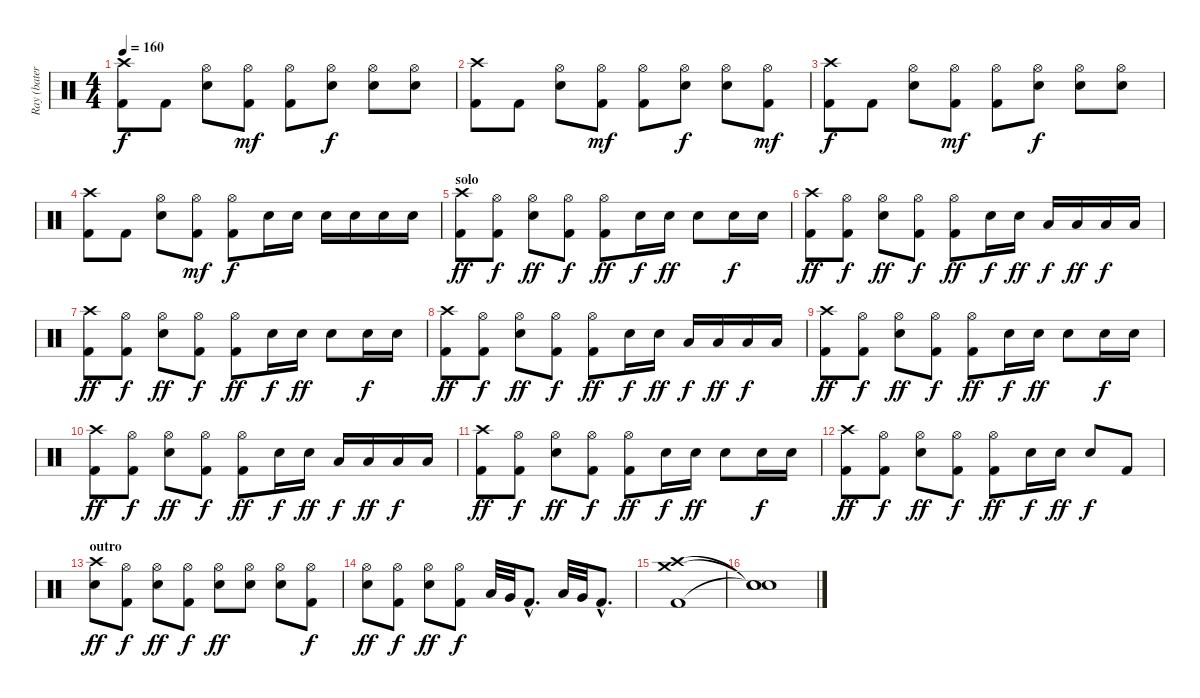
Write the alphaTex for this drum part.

\track ("Ray (batería)" "Ray (bater") {instrument percussion}
\staff {score}
\articulation defaults
\ts (4 4)
\tempo 160
\clef neutral
\ks c
("Crash high (hit)" "Kick (hit) 2").8{dy f} "Kick (hit) 2".8 ("Hi-Hat (open)" "Snare (hit) 2").8 ("Hi-Hat (open)" "Kick (hit) 2").8{dy mf} ("Hi-Hat (open)" "Kick (hit) 2").8 ("Hi-Hat (open)" "Snare (hit) 2").8{dy f} ("Hi-Hat (open)" "Snare (hit) 2").8 ("Hi-Hat (open)" "Snare (hit) 2").8 |
("Crash high (hit)" "Kick (hit) 2").8 "Kick (hit) 2".8 ("Hi-Hat (open)" "Snare (hit) 2").8 ("Hi-Hat (open)" "Kick (hit) 2").8{dy mf} ("Hi-Hat (open)" "Kick (hit) 2").8 ("Hi-Hat (open)" "Snare (hit) 2").8{dy f} ("Hi-Hat (open)" "Snare (hit) 2").8 ("Hi-Hat (open)" "Kick (hit) 2").8{dy mf} |
("Crash high (hit)" "Kick (hit) 2").8{dy f} "Kick (hit) 2".8 ("Hi-Hat (open)" "Snare (hit) 2").8 ("Hi-Hat (open)" "Kick (hit) 2").8{dy mf} ("Hi-Hat (open)" "Kick (hit) 2").8 ("Hi-Hat (open)" "Snare (hit) 2").8{dy f} ("Hi-Hat (open)" "Snare (hit) 2").8 ("Hi-Hat (open)" "Snare (hit) 2").8 |
("Crash high (hit)" "Kick (hit) 2").8 "Kick (hit) 2".8 ("Hi-Hat (open)" "Snare (hit) 2").8 ("Hi-Hat (open)" "Kick (hit) 2").8{dy mf} ("Hi-Hat (open)" "Kick (hit) 2").8{dy f} "Snare (hit) 2".16 "Snare (hit) 2".16 "Snare (hit) 2".16 "Snare (hit) 2".16 "Snare (hit) 2".16 "Snare (hit) 2".16 |
\section ("" "solo")
("Crash high (hit)" "Kick (hit) 2").8{dy ff} ("Hi-Hat (open)" "Kick (hit) 2").8{dy f} ("Hi-Hat (open)" "Snare (hit) 2").8{dy ff} ("Hi-Hat (open)" "Kick (hit) 2").8{dy f} ("Hi-Hat (open)" "Kick (hit) 2").8{dy ff} "Snare (hit) 2".16{dy f} "Snare (hit) 2".16{dy ff} "Snare (hit) 2".8 "Snare (hit) 2".16{dy f} "Snare (hit) 2".16 |
("Crash high (hit)" "Kick (hit) 2").8{dy ff} ("Hi-Hat (open)" "Kick (hit) 2").8{dy f} ("Hi-Hat (open)" "Snare (hit) 2").8{dy ff} ("Hi-Hat (open)" "Kick (hit) 2").8{dy f} ("Hi-Hat (open)" "Kick (hit) 2").8{dy ff} "Snare (hit) 2".16{dy f} "Snare (hit) 2".16{dy ff} "Low Tom (hit)".16{dy f} "Low Tom (hit)".16{dy ff} "Low Floor Tom (hit)".16{dy f} "Low Floor Tom (hit)".16 |
("Crash high (hit)" "Kick (hit) 2").8{dy ff} ("Hi-Hat (open)" "Kick (hit) 2").8{dy f} ("Hi-Hat (open)" "Snare (hit) 2").8{dy ff} ("Hi-Hat (open)" "Kick (hit) 2").8{dy f} ("Hi-Hat (open)" "Kick (hit) 2").8{dy ff} "Snare (hit) 2".16{dy f} "Snare (hit) 2".16{dy ff} "Snare (hit) 2".8 "Snare (hit) 2".16{dy f} "Snare (hit) 2".16 |
("Crash high (hit)" "Kick (hit) 2").8{dy ff} ("Hi-Hat (open)" "Kick (hit) 2").8{dy f} ("Hi-Hat (open)" "Snare (hit) 2").8{dy ff} ("Hi-Hat (open)" "Kick (hit) 2").8{dy f} ("Hi-Hat (open)" "Kick (hit) 2").8{dy ff} "Snare (hit) 2".16{dy f} "Snare (hit) 2".16{dy ff} "Low Tom (hit)".16{dy f} "Low Tom (hit)".16{dy ff} "Low Floor Tom (hit)".16{dy f} "Low Floor Tom (hit)".16 |
("Crash high (hit)" "Kick (hit) 2").8{dy ff} ("Hi-Hat (open)" "Kick (hit) 2").8{dy f} ("Hi-Hat (open)" "Snare (hit) 2").8{dy ff} ("Hi-Hat (open)" "Kick (hit) 2").8{dy f} ("Hi-Hat (open)" "Kick (hit) 2").8{dy ff} "Snare (hit) 2".16{dy f} "Snare (hit) 2".16{dy ff} "Snare (hit) 2".8 "Snare (hit) 2".16{dy f} "Snare (hit) 2".16 |
("Crash high (hit)" "Kick (hit) 2").8{dy ff} ("Hi-Hat (open)" "Kick (hit) 2").8{dy f} ("Hi-Hat (open)" "Snare (hit) 2").8{dy ff} ("Hi-Hat (open)" "Kick (hit) 2").8{dy f} ("Hi-Hat (open)" "Kick (hit) 2").8{dy ff} "Snare (hit) 2".16{dy f} "Snare (hit) 2".16{dy ff} "Low Tom (hit)".16{dy f} "Low Tom (hit)".16{dy ff} "Low Floor Tom (hit)".16{dy f} "Low Floor Tom (hit)".16 |
("Crash high (hit)" "Kick (hit) 2").8{dy ff} ("Hi-Hat (open)" "Kick (hit) 2").8{dy f} ("Hi-Hat (open)" "Snare (hit) 2").8{dy ff} ("Hi-Hat (open)" "Kick (hit) 2").8{dy f} ("Hi-Hat (open)" "Kick (hit) 2").8{dy ff} "Snare (hit) 2".16{dy f} "Snare (hit) 2".16{dy ff} "Snare (hit) 2".8 "Snare (hit) 2".16{dy f} "Snare (hit) 2".16 |
("Crash high (hit)" "Kick (hit) 2").8{dy ff} ("Hi-Hat (open)" "Kick (hit) 2").8{dy f} ("Hi-Hat (open)" "Snare (hit) 2").8{dy ff} ("Hi-Hat (open)" "Kick (hit) 2").8{dy f} ("Hi-Hat (open)" "Kick (hit) 2").8{dy ff} "Snare (hit) 2".16{dy f} "Snare (hit) 2".16{dy ff} "Snare (hit) 2".8{dy f} "Kick (hit) 2".8 |
\section ("" "outro")
("Crash high (hit)" "Snare (hit) 2").8{dy ff} ("Hi-Hat (open)" "Kick (hit) 2").8{dy f} ("Hi-Hat (open)" "Snare (hit) 2").8{dy ff} ("Hi-Hat (open)" "Kick (hit) 2").8{dy f} ("Hi-Hat (open)" "Snare (hit) 2").8{dy ff} ("Hi-Hat (open)" "Snare (hit) 2").8 ("Hi-Hat (open)" "Snare (hit) 2").8 ("Hi-Hat (open)" "Kick (hit) 2").8{dy f} |
("Hi-Hat (open)" "Snare (hit) 2").8{dy ff} ("Hi-Hat (open)" "Kick (hit) 2").8{dy f} ("Hi-Hat (open)" "Snare (hit) 2").8{dy ff} ("Hi-Hat (open)" "Kick (hit) 2").8{dy f} "Low Floor Tom (hit)".32 "Very Low Tom (hit)".32 "Kick (hit) 2"{hac}.8{d} "Low Floor Tom (hit)".32 "Very Low Tom (hit)".32 "Kick (hit) 2"{hac}.8{d} |
("Crash high (hit)" "Crash medium (hit)" "Kick (hit) 2").1 |
("Snare (hit)"{t} "Snare (hit)"{t} "Snare (hit)"{t}).1
